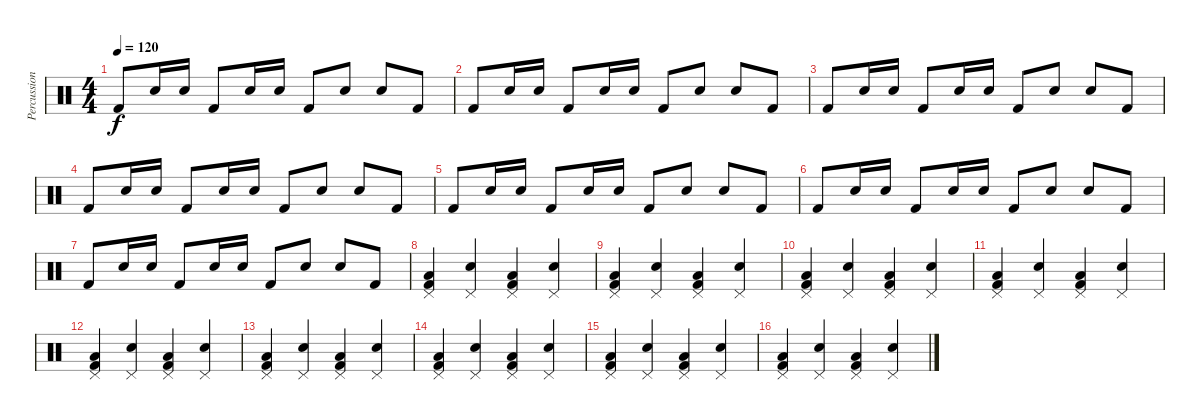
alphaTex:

\track ("Percussions" "Percussion") {instrument percussion}
\staff {score}
\articulation defaults
\ts (4 4)
\tempo 120
\clef neutral
\ks c "Kick (hit) 2".8{dy f} "Electric Snare (hit)".16 "Electric Snare (hit)".16 "Kick (hit) 2".8 "Electric Snare (hit)".16 "Electric Snare (hit)".16 "Kick (hit) 2".8 "Electric Snare (hit)".8 "Electric Snare (hit)".8 "Kick (hit) 2".8
|
"Kick (hit) 2".8 "Electric Snare (hit)".16 "Electric Snare (hit)".16 "Kick (hit) 2".8 "Electric Snare (hit)".16 "Electric Snare (hit)".16 "Kick (hit) 2".8 "Electric Snare (hit)".8 "Electric Snare (hit)".8 "Kick (hit) 2".8 |
"Kick (hit) 2".8 "Electric Snare (hit)".16 "Electric Snare (hit)".16 "Kick (hit) 2".8 "Electric Snare (hit)".16 "Electric Snare (hit)".16 "Kick (hit) 2".8 "Electric Snare (hit)".8 "Electric Snare (hit)".8 "Kick (hit) 2".8 |
"Kick (hit) 2".8 "Electric Snare (hit)".16 "Electric Snare (hit)".16 "Kick (hit) 2".8 "Electric Snare (hit)".16 "Electric Snare (hit)".16 "Kick (hit) 2".8 "Electric Snare (hit)".8 "Electric Snare (hit)".8 "Kick (hit) 2".8 |
"Kick (hit) 2".8 "Electric Snare (hit)".16 "Electric Snare (hit)".16 "Kick (hit) 2".8 "Electric Snare (hit)".16 "Electric Snare (hit)".16 "Kick (hit) 2".8 "Electric Snare (hit)".8 "Electric Snare (hit)".8 "Kick (hit) 2".8 |
"Kick (hit) 2".8 "Electric Snare (hit)".16 "Electric Snare (hit)".16 "Kick (hit) 2".8 "Electric Snare (hit)".16 "Electric Snare (hit)".16 "Kick (hit) 2".8 "Electric Snare (hit)".8 "Electric Snare (hit)".8 "Kick (hit) 2".8 |
"Kick (hit) 2".8 "Electric Snare (hit)".16 "Electric Snare (hit)".16 "Kick (hit) 2".8 "Electric Snare (hit)".16 "Electric Snare (hit)".16 "Kick (hit) 2".8 "Electric Snare (hit)".8 "Electric Snare (hit)".8 "Kick (hit) 2".8 |
("Pedal Hi-Hat (hit)" "Kick (hit) 2" "Low Floor Tom (hit)").4 ("Pedal Hi-Hat (hit)" "Electric Snare (hit)").4 ("Pedal Hi-Hat (hit)" "Kick (hit) 2" "Low Floor Tom (hit)").4 ("Pedal Hi-Hat (hit)" "Electric Snare (hit)").4 |
("Pedal Hi-Hat (hit)" "Kick (hit) 2" "Low Floor Tom (hit)").4 ("Pedal Hi-Hat (hit)" "Electric Snare (hit)").4 ("Pedal Hi-Hat (hit)" "Kick (hit) 2" "Low Floor Tom (hit)").4 ("Pedal Hi-Hat (hit)" "Electric Snare (hit)").4 |
("Pedal Hi-Hat (hit)" "Kick (hit) 2" "Low Floor Tom (hit)").4 ("Pedal Hi-Hat (hit)" "Electric Snare (hit)").4 ("Pedal Hi-Hat (hit)" "Kick (hit) 2" "Low Floor Tom (hit)").4 ("Pedal Hi-Hat (hit)" "Electric Snare (hit)").4 |
("Pedal Hi-Hat (hit)" "Kick (hit) 2" "Low Floor Tom (hit)").4 ("Pedal Hi-Hat (hit)" "Electric Snare (hit)").4 ("Pedal Hi-Hat (hit)" "Kick (hit) 2" "Low Floor Tom (hit)").4 ("Pedal Hi-Hat (hit)" "Electric Snare (hit)").4 |
("Pedal Hi-Hat (hit)" "Kick (hit) 2" "Low Floor Tom (hit)").4{volume 8} ("Pedal Hi-Hat (hit)" "Electric Snare (hit)").4 ("Pedal Hi-Hat (hit)" "Kick (hit) 2" "Low Floor Tom (hit)").4 ("Pedal Hi-Hat (hit)" "Electric Snare (hit)").4 |
("Pedal Hi-Hat (hit)" "Kick (hit) 2" "Low Floor Tom (hit)").4 ("Pedal Hi-Hat (hit)" "Electric Snare (hit)").4 ("Pedal Hi-Hat (hit)" "Kick (hit) 2" "Low Floor Tom (hit)").4 ("Pedal Hi-Hat (hit)" "Electric Snare (hit)").4 |
("Pedal Hi-Hat (hit)" "Kick (hit) 2" "Low Floor Tom (hit)").4 ("Pedal Hi-Hat (hit)" "Electric Snare (hit)").4 ("Pedal Hi-Hat (hit)" "Kick (hit) 2" "Low Floor Tom (hit)").4 ("Pedal Hi-Hat (hit)" "Electric Snare (hit)").4 |
("Pedal Hi-Hat (hit)" "Kick (hit) 2" "Low Floor Tom (hit)").4 ("Pedal Hi-Hat (hit)" "Electric Snare (hit)").4 ("Pedal Hi-Hat (hit)" "Kick (hit) 2" "Low Floor Tom (hit)").4 ("Pedal Hi-Hat (hit)" "Electric Snare (hit)").4 |
("Pedal Hi-Hat (hit)" "Kick (hit) 2" "Low Floor Tom (hit)").4{volume 0} ("Pedal Hi-Hat (hit)" "Electric Snare (hit)").4 ("Pedal Hi-Hat (hit)" "Kick (hit) 2" "Low Floor Tom (hit)").4 ("Pedal Hi-Hat (hit)" "Electric Snare (hit)").4
